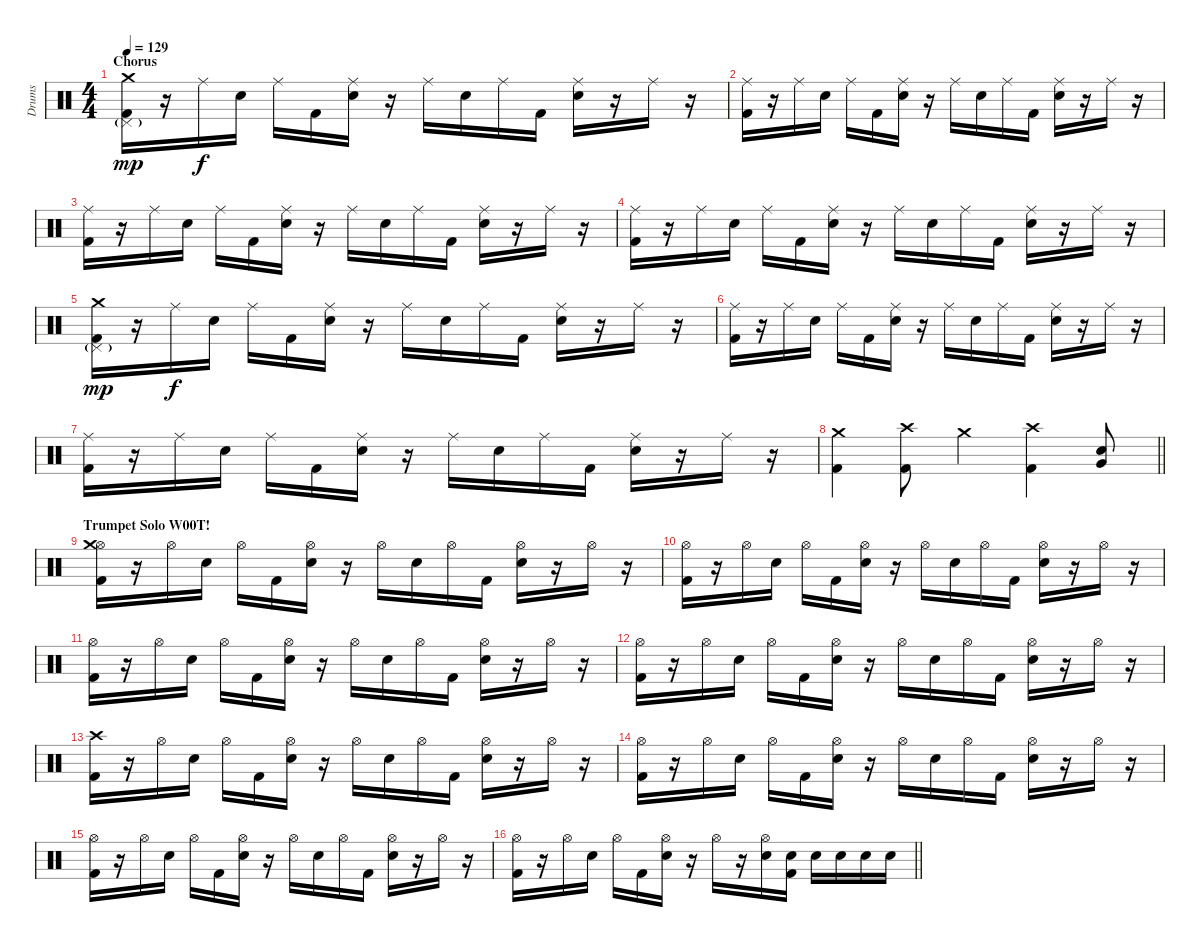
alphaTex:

\track ("Drums" "Drums") {instrument percussion}
\staff {score}
\articulation defaults
\ts (4 4)
\section ("" "Chorus")
\tempo 129
\clef neutral
\ks c
("Crash medium (hit)" "Pedal Hi-Hat (hit)"{g} "Kick (hit) 2").16{dy mp} r.16 "Ride (middle)".16{dy f} "Electric Snare (hit)".16 "Ride (middle)".16 "Kick (hit) 2".16 ("Ride (middle)" "Electric Snare (hit)").16 r.16 "Ride (middle)".16 "Electric Snare (hit)".16 "Ride (middle)".16 "Kick (hit) 2".16 ("Ride (middle)" "Electric Snare (hit)").16 r.16 "Ride (middle)".16 r.16 |
("Ride (middle)" "Kick (hit) 2").16 r.16 "Ride (middle)".16 "Electric Snare (hit)".16 "Ride (middle)".16 "Kick (hit) 2".16 ("Ride (middle)" "Electric Snare (hit)").16 r.16 "Ride (middle)".16 "Electric Snare (hit)".16 "Ride (middle)".16 "Kick (hit) 2".16 ("Ride (middle)" "Electric Snare (hit)").16 r.16 "Ride (middle)".16 r.16 |
("Ride (middle)" "Kick (hit) 2").16 r.16 "Ride (middle)".16 "Electric Snare (hit)".16 "Ride (middle)".16 "Kick (hit) 2".16 ("Ride (middle)" "Electric Snare (hit)").16 r.16 "Ride (middle)".16 "Electric Snare (hit)".16 "Ride (middle)".16 "Kick (hit) 2".16 ("Ride (middle)" "Electric Snare (hit)").16 r.16 "Ride (middle)".16 r.16 |
("Ride (middle)" "Kick (hit) 2").16 r.16 "Ride (middle)".16 "Electric Snare (hit)".16 "Ride (middle)".16 "Kick (hit) 2".16 ("Ride (middle)" "Electric Snare (hit)").16 r.16 "Ride (middle)".16 "Electric Snare (hit)".16 "Ride (middle)".16 "Kick (hit) 2".16 ("Ride (middle)" "Electric Snare (hit)").16 r.16 "Ride (middle)".16 r.16 |
("Crash medium (hit)" "Pedal Hi-Hat (hit)"{g} "Kick (hit) 2").16{dy mp} r.16 "Ride (middle)".16{dy f} "Electric Snare (hit)".16 "Ride (middle)".16 "Kick (hit) 2".16 ("Ride (middle)" "Electric Snare (hit)").16 r.16 "Ride (middle)".16 "Electric Snare (hit)".16 "Ride (middle)".16 "Kick (hit) 2".16 ("Ride (middle)" "Electric Snare (hit)").16 r.16 "Ride (middle)".16 r.16 |
("Ride (middle)" "Kick (hit) 2").16 r.16 "Ride (middle)".16 "Electric Snare (hit)".16 "Ride (middle)".16 "Kick (hit) 2".16 ("Ride (middle)" "Electric Snare (hit)").16 r.16 "Ride (middle)".16 "Electric Snare (hit)".16 "Ride (middle)".16 "Kick (hit) 2".16 ("Ride (middle)" "Electric Snare (hit)").16 r.16 "Ride (middle)".16 r.16 |
("Ride (middle)" "Kick (hit) 2").16 r.16 "Ride (middle)".16 "Electric Snare (hit)".16 "Ride (middle)".16 "Kick (hit) 2".16 ("Ride (middle)" "Electric Snare (hit)").16 r.16 "Ride (middle)".16 "Electric Snare (hit)".16 "Ride (middle)".16 "Kick (hit) 2".16 ("Ride (middle)" "Electric Snare (hit)").16 r.16 "Ride (middle)".16 r.16 |
\barLineRight lightlight
("Crash medium (hit)" "Kick (hit) 2").4 ("Crash high (hit)" "Kick (hit) 2").8 "Crash medium (hit)".4 ("Crash high (hit)" "Kick (hit) 2").4 ("Electric Snare (hit)" "Very Low Tom (hit)").8 |
\section ("" "Trumpet Solo W00T!")
("Hi-Hat (open)" "Crash medium (hit)" "Kick (hit) 2").16 r.16 "Hi-Hat (open)".16 "Electric Snare (hit)".16 "Hi-Hat (open)".16 "Kick (hit) 2".16 ("Hi-Hat (open)" "Electric Snare (hit)").16 r.16 "Hi-Hat (open)".16 "Electric Snare (hit)".16 "Hi-Hat (open)".16 "Kick (hit) 2".16 ("Hi-Hat (open)" "Electric Snare (hit)").16 r.16 "Hi-Hat (open)".16 r.16 |
("Hi-Hat (open)" "Kick (hit) 2").16 r.16 "Hi-Hat (open)".16 "Electric Snare (hit)".16 "Hi-Hat (open)".16 "Kick (hit) 2".16 ("Hi-Hat (open)" "Electric Snare (hit)").16 r.16 "Hi-Hat (open)".16 "Electric Snare (hit)".16 "Hi-Hat (open)".16 "Kick (hit) 2".16 ("Hi-Hat (open)" "Electric Snare (hit)").16 r.16 "Hi-Hat (open)".16 r.16 |
("Hi-Hat (open)" "Kick (hit) 2").16 r.16 "Hi-Hat (open)".16 "Electric Snare (hit)".16 "Hi-Hat (open)".16 "Kick (hit) 2".16 ("Hi-Hat (open)" "Electric Snare (hit)").16 r.16 "Hi-Hat (open)".16 "Electric Snare (hit)".16 "Hi-Hat (open)".16 "Kick (hit) 2".16 ("Hi-Hat (open)" "Electric Snare (hit)").16 r.16 "Hi-Hat (open)".16 r.16 |
("Hi-Hat (open)" "Kick (hit) 2").16 r.16 "Hi-Hat (open)".16 "Electric Snare (hit)".16 "Hi-Hat (open)".16 "Kick (hit) 2".16 ("Hi-Hat (open)" "Electric Snare (hit)").16 r.16 "Hi-Hat (open)".16 "Electric Snare (hit)".16 "Hi-Hat (open)".16 "Kick (hit) 2".16 ("Hi-Hat (open)" "Electric Snare (hit)").16 r.16 "Hi-Hat (open)".16 r.16 |
("Crash high (hit)" "Kick (hit) 2").16 r.16 "Hi-Hat (open)".16 "Electric Snare (hit)".16 "Hi-Hat (open)".16 "Kick (hit) 2".16 ("Hi-Hat (open)" "Electric Snare (hit)").16 r.16 "Hi-Hat (open)".16 "Electric Snare (hit)".16 "Hi-Hat (open)".16 "Kick (hit) 2".16 ("Hi-Hat (open)" "Electric Snare (hit)").16 r.16 "Hi-Hat (open)".16 r.16 |
("Hi-Hat (open)" "Kick (hit) 2").16 r.16 "Hi-Hat (open)".16 "Electric Snare (hit)".16 "Hi-Hat (open)".16 "Kick (hit) 2".16 ("Hi-Hat (open)" "Electric Snare (hit)").16 r.16 "Hi-Hat (open)".16 "Electric Snare (hit)".16 "Hi-Hat (open)".16 "Kick (hit) 2".16 ("Hi-Hat (open)" "Electric Snare (hit)").16 r.16 "Hi-Hat (open)".16 r.16 |
("Hi-Hat (open)" "Kick (hit) 2").16 r.16 "Hi-Hat (open)".16 "Electric Snare (hit)".16 "Hi-Hat (open)".16 "Kick (hit) 2".16 ("Hi-Hat (open)" "Electric Snare (hit)").16 r.16 "Hi-Hat (open)".16 "Electric Snare (hit)".16 "Hi-Hat (open)".16 "Kick (hit) 2".16 ("Hi-Hat (open)" "Electric Snare (hit)").16 r.16 "Hi-Hat (open)".16 r.16 |
\barLineRight lightlight
("Hi-Hat (open)" "Kick (hit) 2").16 r.16 "Hi-Hat (open)".16 "Electric Snare (hit)".16 "Hi-Hat (open)".16 "Kick (hit) 2".16 ("Hi-Hat (open)" "Electric Snare (hit)").16 r.16 "Hi-Hat (open)".16 r.16 ("Hi-Hat (open)" "Electric Snare (hit)").16 ("Electric Snare (hit)" "Kick (hit) 2").16 "Electric Snare (hit)".16 "Electric Snare (hit)".16 "Electric Snare (hit)".16 "Electric Snare (hit)".16
